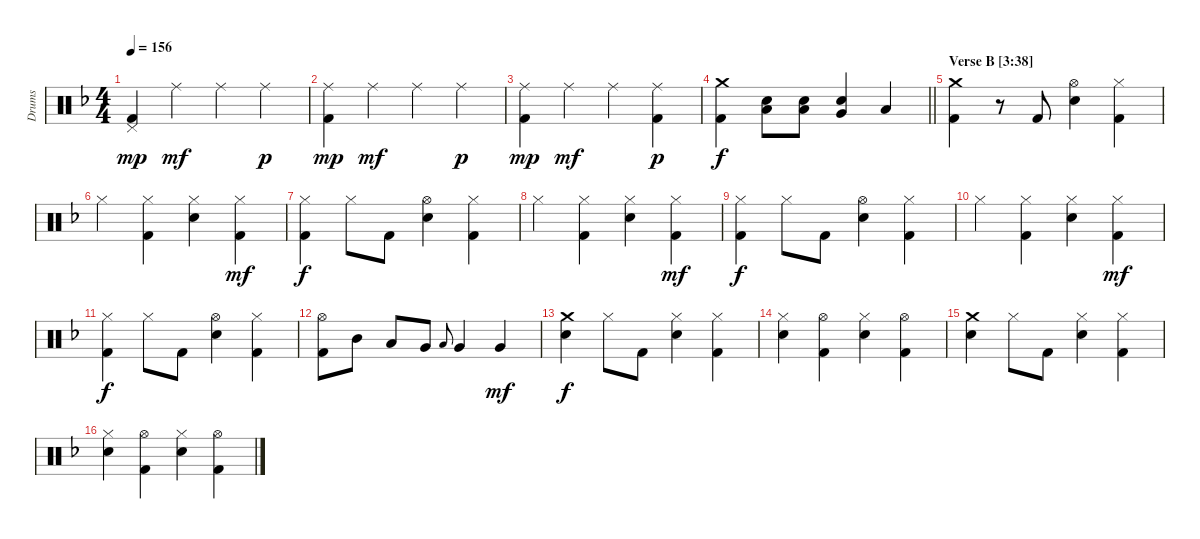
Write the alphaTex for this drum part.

\track ("Drums" "Drums") {instrument percussion}
\staff {score}
\articulation defaults
\ts (4 4)
\tempo 156
\clef neutral
\ks dminor
("Pedal Hi-Hat (hit)" "Kick (hit) 2").4{dy mp} "Ride (middle)".4{dy mf} "Ride (middle)".4 "Ride (middle)".4{dy p} |
("Ride (middle)" "Kick (hit) 2").4{dy mp} "Ride (middle)".4{dy mf} "Ride (middle)".4 "Ride (middle)".4{dy p} |
("Ride (middle)" "Kick (hit) 2").4{dy mp} "Ride (middle)".4{dy mf} "Ride (middle)".4 ("Ride (middle)" "Kick (hit) 2").4{dy p} |
\barLineRight lightlight
("Crash medium (hit)" "Kick (hit) 2").4{dy f} ("Low Tom (hit)" "Snare (hit) 2").8 ("Low Tom (hit)" "Snare (hit) 2").8 ("Very Low Tom (hit)" "Snare (hit) 2").4 "Low Floor Tom (hit)".4 |
\section ("" "Verse B [3:38]")
("Crash medium (hit)" "Kick (hit) 2").4 r.8 "Kick (hit) 2".8 ("Hi-Hat (open)" "Snare (hit) 2").4 ("Hi-Hat (closed)" "Kick (hit) 2").4 |
"Hi-Hat (closed)".4 ("Hi-Hat (closed)" "Kick (hit) 2").4 ("Hi-Hat (closed)" "Snare (hit) 2").4 ("Hi-Hat (closed)" "Kick (hit) 2").4{dy mf} |
("Hi-Hat (closed)" "Kick (hit) 2").4{dy f} "Hi-Hat (closed)".8 "Kick (hit) 2".8 ("Hi-Hat (open)" "Snare (hit) 2").4 ("Hi-Hat (closed)" "Kick (hit) 2").4 |
"Hi-Hat (closed)".4 ("Hi-Hat (closed)" "Kick (hit) 2").4 ("Hi-Hat (closed)" "Snare (hit) 2").4 ("Hi-Hat (closed)" "Kick (hit) 2").4{dy mf} |
("Hi-Hat (closed)" "Kick (hit) 2").4{dy f} "Hi-Hat (closed)".8 "Kick (hit) 2".8 ("Hi-Hat (open)" "Snare (hit) 2").4 ("Hi-Hat (closed)" "Kick (hit) 2").4 |
"Hi-Hat (closed)".4 ("Hi-Hat (closed)" "Kick (hit) 2").4 ("Hi-Hat (closed)" "Snare (hit) 2").4 ("Hi-Hat (closed)" "Kick (hit) 2").4{dy mf} |
("Hi-Hat (closed)" "Kick (hit) 2").4{dy f} "Hi-Hat (closed)".8 "Kick (hit) 2".8 ("Hi-Hat (open)" "Snare (hit) 2").4 ("Hi-Hat (closed)" "Kick (hit) 2").4 |
("Hi-Hat (open)" "Kick (hit) 2").8 "Mid Tom (hit)".8 "Low Tom (hit)".8 "Very Low Tom (hit)".8 "Low Floor Tom (hit)".8{gr onbeat} "Very Low Tom (hit)".4 "Very Low Tom (hit)".4{dy mf} |
("Crash medium (hit)" "Snare (hit) 2").4{dy f} "Hi-Hat (closed)".8 "Kick (hit) 2".8 ("Hi-Hat (closed)" "Snare (hit) 2").4 ("Hi-Hat (closed)" "Kick (hit) 2").4 |
("Hi-Hat (closed)" "Snare (hit) 2").4 ("Hi-Hat (open)" "Kick (hit) 2").4 ("Hi-Hat (closed)" "Snare (hit) 2").4 ("Hi-Hat (open)" "Kick (hit) 2").4 |
("Crash medium (hit)" "Snare (hit) 2").4 "Hi-Hat (closed)".8 "Kick (hit) 2".8 ("Hi-Hat (closed)" "Snare (hit) 2").4 ("Hi-Hat (closed)" "Kick (hit) 2").4 |
("Hi-Hat (closed)" "Snare (hit) 2").4 ("Hi-Hat (open)" "Kick (hit) 2").4 ("Hi-Hat (closed)" "Snare (hit) 2").4 ("Hi-Hat (open)" "Kick (hit) 2").4
